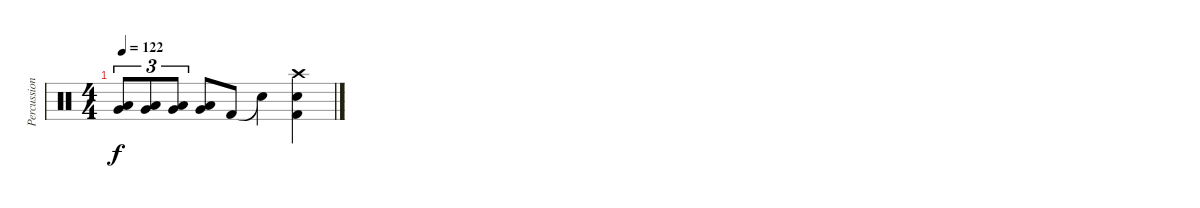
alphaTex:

\track ("Percussion (Peter)" "Percussion") {instrument percussion}
\staff {score}
\articulation defaults
\ts (4 4)
\tempo 122
\clef neutral
\ks c
("Low Tom (hit)" "Very Low Tom (hit)").8{tu (3 2) dy f} ("Low Tom (hit)" "Very Low Tom (hit)").8{tu (3 2)} ("Very Low Tom (hit)" "Low Floor Tom (hit)").8{tu (3 2)} ("Very Low Tom (hit)" "Low Floor Tom (hit)").8 "Kick (hit) 2".8 "Snare (hit)"{t}.4 ("Crash high (hit)" "Snare (hit) 2" "Kick (hit) 2").4
